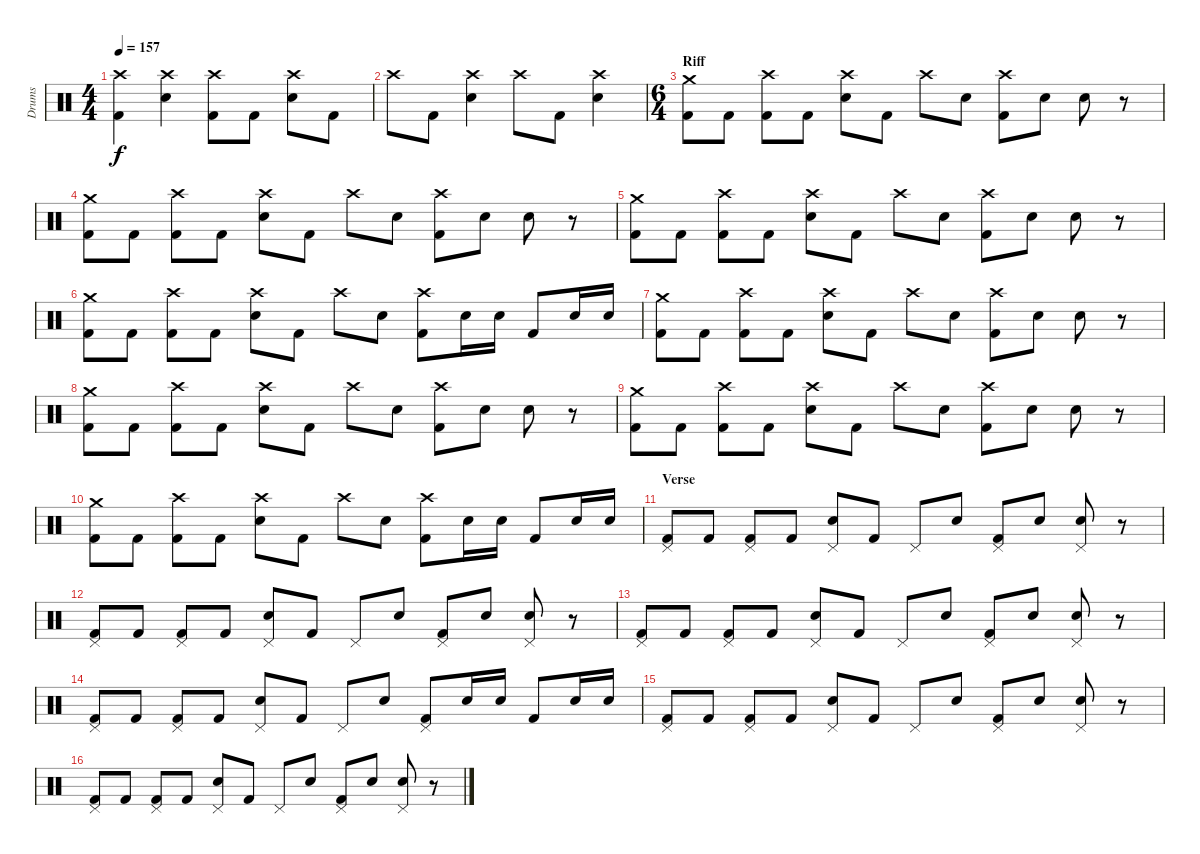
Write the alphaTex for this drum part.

\track ("Drums" "Drums") {instrument percussion}
\staff {score}
\articulation defaults
\ts (4 4)
\tempo 157
\clef neutral
\ks c
("Crash high (hit)" "Kick (hit) 2").4{dy f} ("Crash high (hit)" "Electric Snare (hit)").4 ("Crash high (hit)" "Kick (hit) 2").8 "Kick (hit) 2".8 ("Crash high (hit)" "Electric Snare (hit)").8 "Kick (hit) 2".8 |
"Crash high (hit)".8 "Kick (hit) 2".8 ("Crash high (hit)" "Electric Snare (hit)").4 "Crash high (hit)".8 "Kick (hit) 2".8 ("Crash high (hit)" "Electric Snare (hit)").4 |
\ts (6 4)
\section ("" "Riff")
("Crash medium (hit)" "Kick (hit) 2").8 "Kick (hit) 2".8 ("Crash high (hit)" "Kick (hit) 2").8 "Kick (hit) 2".8 ("Crash high (hit)" "Electric Snare (hit)").8 "Kick (hit) 2".8 "Crash high (hit)".8 "Electric Snare (hit)".8 ("Crash high (hit)" "Kick (hit) 2").8 "Electric Snare (hit)".8 "Electric Snare (hit)".8 r.8 |
("Crash medium (hit)" "Kick (hit) 2").8 "Kick (hit) 2".8 ("Crash high (hit)" "Kick (hit) 2").8 "Kick (hit) 2".8 ("Crash high (hit)" "Electric Snare (hit)").8 "Kick (hit) 2".8 "Crash high (hit)".8 "Electric Snare (hit)".8 ("Crash high (hit)" "Kick (hit) 2").8 "Electric Snare (hit)".8 "Electric Snare (hit)".8 r.8 |
("Crash medium (hit)" "Kick (hit) 2").8 "Kick (hit) 2".8 ("Crash high (hit)" "Kick (hit) 2").8 "Kick (hit) 2".8 ("Crash high (hit)" "Electric Snare (hit)").8 "Kick (hit) 2".8 "Crash high (hit)".8 "Electric Snare (hit)".8 ("Crash high (hit)" "Kick (hit) 2").8 "Electric Snare (hit)".8 "Electric Snare (hit)".8 r.8 |
("Crash medium (hit)" "Kick (hit) 2").8 "Kick (hit) 2".8 ("Crash high (hit)" "Kick (hit) 2").8 "Kick (hit) 2".8 ("Crash high (hit)" "Electric Snare (hit)").8 "Kick (hit) 2".8 "Crash high (hit)".8 "Electric Snare (hit)".8 ("Crash high (hit)" "Kick (hit) 2").8 "Electric Snare (hit)".16 "Electric Snare (hit)".16 "Kick (hit) 2".8 "Electric Snare (hit)".16 "Electric Snare (hit)".16 |
("Crash medium (hit)" "Kick (hit) 2").8 "Kick (hit) 2".8 ("Crash high (hit)" "Kick (hit) 2").8 "Kick (hit) 2".8 ("Crash high (hit)" "Electric Snare (hit)").8 "Kick (hit) 2".8 "Crash high (hit)".8 "Electric Snare (hit)".8 ("Crash high (hit)" "Kick (hit) 2").8 "Electric Snare (hit)".8 "Electric Snare (hit)".8 r.8 |
("Crash medium (hit)" "Kick (hit) 2").8 "Kick (hit) 2".8 ("Crash high (hit)" "Kick (hit) 2").8 "Kick (hit) 2".8 ("Crash high (hit)" "Electric Snare (hit)").8 "Kick (hit) 2".8 "Crash high (hit)".8 "Electric Snare (hit)".8 ("Crash high (hit)" "Kick (hit) 2").8 "Electric Snare (hit)".8 "Electric Snare (hit)".8 r.8 |
("Crash medium (hit)" "Kick (hit) 2").8 "Kick (hit) 2".8 ("Crash high (hit)" "Kick (hit) 2").8 "Kick (hit) 2".8 ("Crash high (hit)" "Electric Snare (hit)").8 "Kick (hit) 2".8 "Crash high (hit)".8 "Electric Snare (hit)".8 ("Crash high (hit)" "Kick (hit) 2").8 "Electric Snare (hit)".8 "Electric Snare (hit)".8 r.8 |
("Crash medium (hit)" "Kick (hit) 2").8 "Kick (hit) 2".8 ("Crash high (hit)" "Kick (hit) 2").8 "Kick (hit) 2".8 ("Crash high (hit)" "Electric Snare (hit)").8 "Kick (hit) 2".8 "Crash high (hit)".8 "Electric Snare (hit)".8 ("Crash high (hit)" "Kick (hit) 2").8 "Electric Snare (hit)".16 "Electric Snare (hit)".16 "Kick (hit) 2".8 "Electric Snare (hit)".16 "Electric Snare (hit)".16 |
\section ("" "Verse")
("Pedal Hi-Hat (hit)" "Kick (hit) 2").8 "Kick (hit) 2".8 ("Pedal Hi-Hat (hit)" "Kick (hit) 2").8 "Kick (hit) 2".8 ("Pedal Hi-Hat (hit)" "Electric Snare (hit)").8 "Kick (hit) 2".8 "Pedal Hi-Hat (hit)".8 "Electric Snare (hit)".8 ("Pedal Hi-Hat (hit)" "Kick (hit) 2").8 "Electric Snare (hit)".8 ("Pedal Hi-Hat (hit)" "Electric Snare (hit)").8 r.8 |
("Pedal Hi-Hat (hit)" "Kick (hit) 2").8 "Kick (hit) 2".8 ("Pedal Hi-Hat (hit)" "Kick (hit) 2").8 "Kick (hit) 2".8 ("Pedal Hi-Hat (hit)" "Electric Snare (hit)").8 "Kick (hit) 2".8 "Pedal Hi-Hat (hit)".8 "Electric Snare (hit)".8 ("Pedal Hi-Hat (hit)" "Kick (hit) 2").8 "Electric Snare (hit)".8 ("Pedal Hi-Hat (hit)" "Electric Snare (hit)").8 r.8 |
("Pedal Hi-Hat (hit)" "Kick (hit) 2").8 "Kick (hit) 2".8 ("Pedal Hi-Hat (hit)" "Kick (hit) 2").8 "Kick (hit) 2".8 ("Pedal Hi-Hat (hit)" "Electric Snare (hit)").8 "Kick (hit) 2".8 "Pedal Hi-Hat (hit)".8 "Electric Snare (hit)".8 ("Pedal Hi-Hat (hit)" "Kick (hit) 2").8 "Electric Snare (hit)".8 ("Pedal Hi-Hat (hit)" "Electric Snare (hit)").8 r.8 |
("Pedal Hi-Hat (hit)" "Kick (hit) 2").8 "Kick (hit) 2".8 ("Pedal Hi-Hat (hit)" "Kick (hit) 2").8 "Kick (hit) 2".8 ("Pedal Hi-Hat (hit)" "Electric Snare (hit)").8 "Kick (hit) 2".8 "Pedal Hi-Hat (hit)".8 "Electric Snare (hit)".8 ("Pedal Hi-Hat (hit)" "Kick (hit) 2").8 "Electric Snare (hit)".16 "Electric Snare (hit)".16 "Kick (hit) 2".8 "Electric Snare (hit)".16 "Electric Snare (hit)".16 |
("Pedal Hi-Hat (hit)" "Kick (hit) 2").8 "Kick (hit) 2".8 ("Pedal Hi-Hat (hit)" "Kick (hit) 2").8 "Kick (hit) 2".8 ("Pedal Hi-Hat (hit)" "Electric Snare (hit)").8 "Kick (hit) 2".8 "Pedal Hi-Hat (hit)".8 "Electric Snare (hit)".8 ("Pedal Hi-Hat (hit)" "Kick (hit) 2").8 "Electric Snare (hit)".8 ("Pedal Hi-Hat (hit)" "Electric Snare (hit)").8 r.8 |
("Pedal Hi-Hat (hit)" "Kick (hit) 2").8 "Kick (hit) 2".8 ("Pedal Hi-Hat (hit)" "Kick (hit) 2").8 "Kick (hit) 2".8 ("Pedal Hi-Hat (hit)" "Electric Snare (hit)").8 "Kick (hit) 2".8 "Pedal Hi-Hat (hit)".8 "Electric Snare (hit)".8 ("Pedal Hi-Hat (hit)" "Kick (hit) 2").8 "Electric Snare (hit)".8 ("Pedal Hi-Hat (hit)" "Electric Snare (hit)").8 r.8
